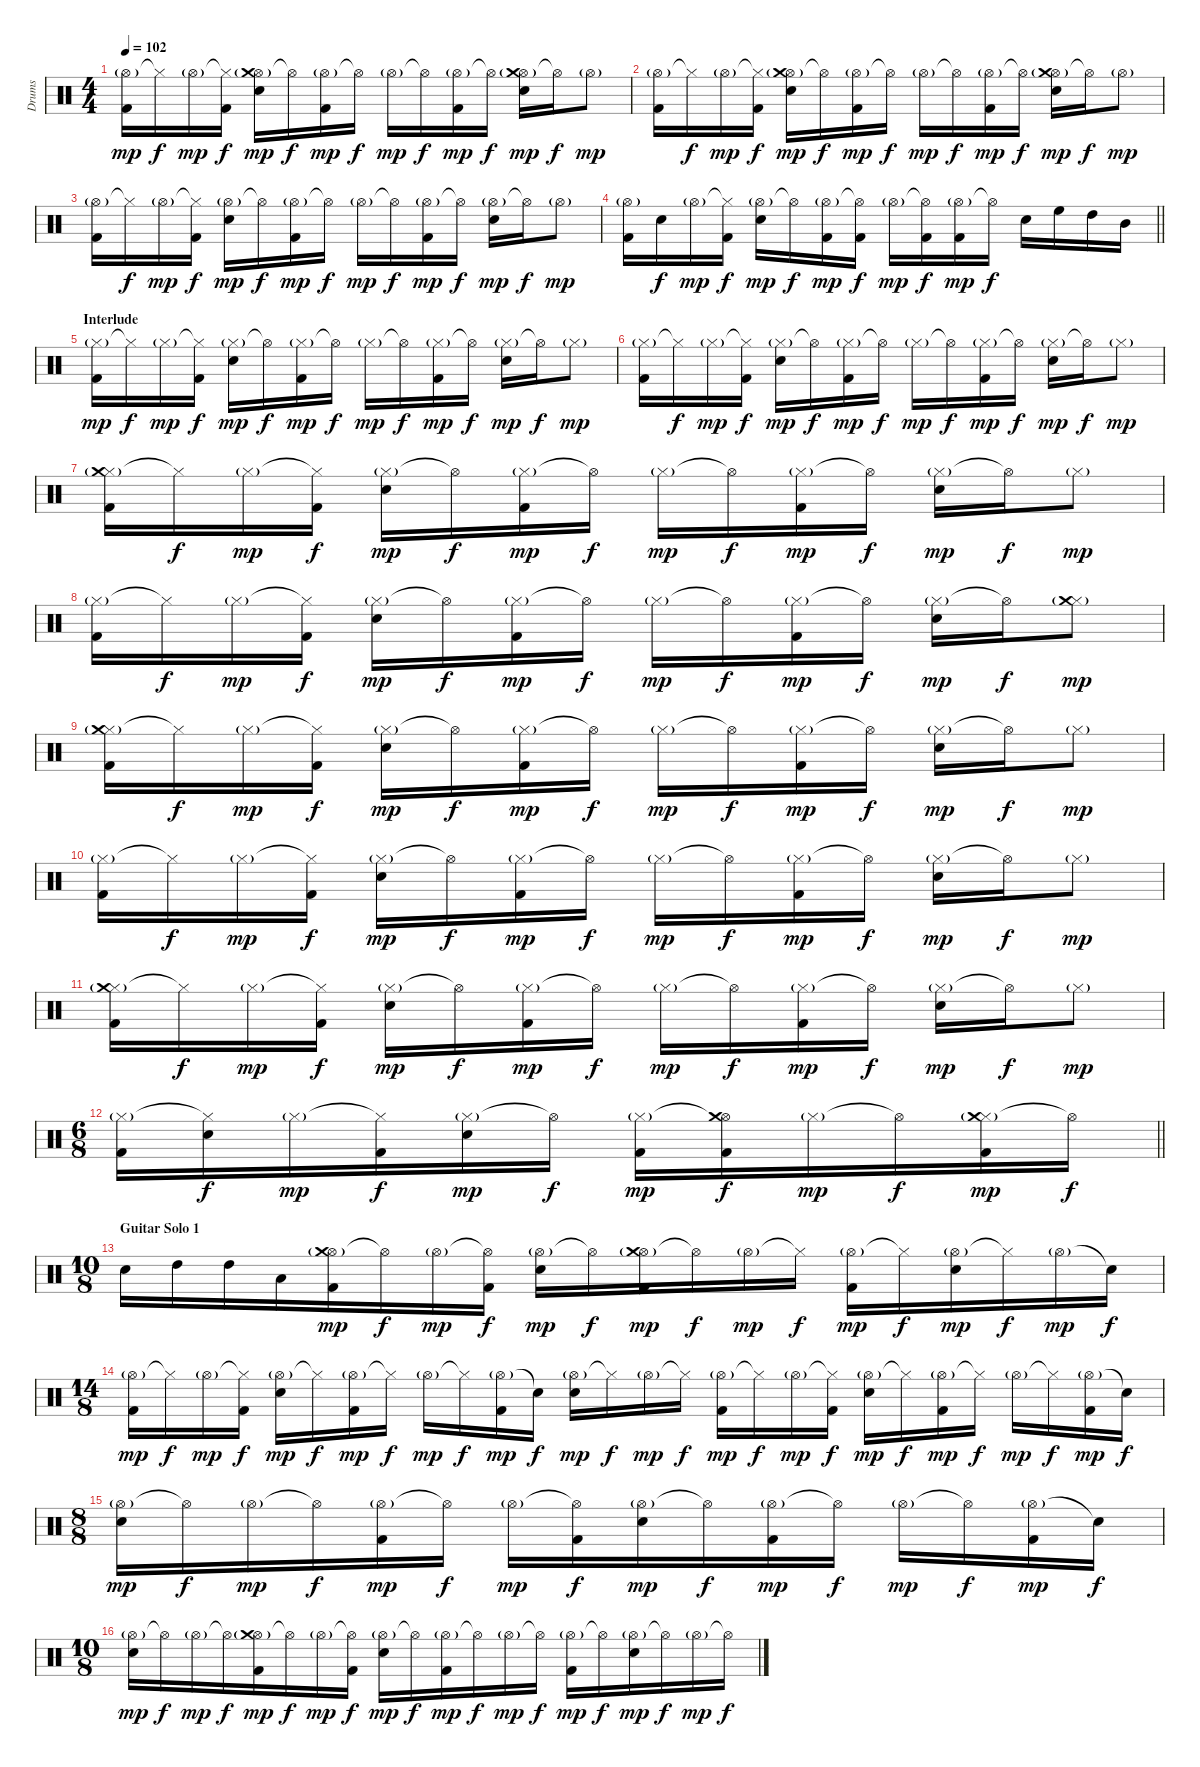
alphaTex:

\track ("Drums" "Drums") {instrument percussion}
\staff {score}
\articulation defaults
\ts (4 4)
\tempo 102
\clef neutral
\ks c
("Hi-Hat (open)"{g} "Kick (hit) 2").16{dy mp} "Hi-Hat (closed)"{t}.16{dy f} "Hi-Hat (open)"{g}.16{dy mp} ("Hi-Hat (closed)"{t} "Kick (hit) 2").16{dy f} ("Hi-Hat (open)"{g} "Crash medium (hit)"{g} "Electric Snare (hit)").16{dy mp} "Hi-Hat (open)"{t}.16{dy f} ("Hi-Hat (open)"{g} "Kick (hit) 2").16{dy mp} "Hi-Hat (open)"{t}.16{dy f} "Hi-Hat (open)"{g}.16{dy mp} "Hi-Hat (open)"{t}.16{dy f} ("Hi-Hat (open)"{g} "Kick (hit) 2").16{dy mp} "Hi-Hat (open)"{t}.16{dy f} ("Hi-Hat (open)"{g} "Crash medium (hit)"{g} "Electric Snare (hit)").16{dy mp} "Hi-Hat (open)"{t}.16{dy f} "Hi-Hat (open)"{g}.8{dy mp} |
("Hi-Hat (open)"{g} "Kick (hit) 2").16 "Hi-Hat (closed)"{t}.16{dy f} "Hi-Hat (open)"{g}.16{dy mp} ("Hi-Hat (closed)"{t} "Kick (hit) 2").16{dy f} ("Hi-Hat (open)"{g} "Crash medium (hit)"{g} "Electric Snare (hit)").16{dy mp} "Hi-Hat (open)"{t}.16{dy f} ("Hi-Hat (open)"{g} "Kick (hit) 2").16{dy mp} "Hi-Hat (open)"{t}.16{dy f} "Hi-Hat (open)"{g}.16{dy mp} "Hi-Hat (open)"{t}.16{dy f} ("Hi-Hat (open)"{g} "Kick (hit) 2").16{dy mp} "Hi-Hat (open)"{t}.16{dy f} ("Hi-Hat (open)"{g} "Crash medium (hit)"{g} "Electric Snare (hit)").16{dy mp} "Hi-Hat (open)"{t}.16{dy f} "Hi-Hat (open)"{g}.8{dy mp} |
("Hi-Hat (open)"{g} "Kick (hit) 2").16 "Hi-Hat (closed)"{t}.16{dy f} "Hi-Hat (open)"{g}.16{dy mp} ("Hi-Hat (closed)"{t} "Kick (hit) 2").16{dy f} ("Hi-Hat (open)"{g} "Electric Snare (hit)").16{dy mp} "Hi-Hat (open)"{t}.16{dy f} ("Hi-Hat (open)"{g} "Kick (hit) 2").16{dy mp} "Hi-Hat (open)"{t}.16{dy f} "Hi-Hat (open)"{g}.16{dy mp} "Hi-Hat (open)"{t}.16{dy f} ("Hi-Hat (open)"{g} "Kick (hit) 2").16{dy mp} "Hi-Hat (open)"{t}.16{dy f} ("Hi-Hat (open)"{g} "Electric Snare (hit)").16{dy mp} "Hi-Hat (open)"{t}.16{dy f} "Hi-Hat (open)"{g}.8{dy mp} |
\barLineRight lightlight
("Hi-Hat (open)"{g} "Kick (hit) 2").16 "Electric Snare (hit)".16{dy f} "Hi-Hat (open)"{g}.16{dy mp} ("Hi-Hat (closed)"{t} "Kick (hit) 2").16{dy f} ("Hi-Hat (open)"{g} "Electric Snare (hit)").16{dy mp} "Hi-Hat (open)"{t}.16{dy f} ("Hi-Hat (open)"{g} "Kick (hit) 2").16{dy mp} ("Hi-Hat (open)"{t} "Kick (hit) 2").16{dy f} "Hi-Hat (open)"{g}.16{dy mp} ("Hi-Hat (open)"{t} "Kick (hit) 2").16{dy f} ("Hi-Hat (open)"{g} "Kick (hit) 2").16{dy mp} "Hi-Hat (open)"{t}.16{dy f} "Electric Snare (hit)".16 "High Floor Tom (hit)".16 "High Tom (hit)".16 "Mid Tom (hit)".16 |
\section ("" "Interlude")
("Hi-Hat (closed)"{g} "Kick (hit) 2").16{dy mp} "Hi-Hat (closed)"{t}.16{dy f} "Hi-Hat (closed)"{g}.16{dy mp} ("Hi-Hat (closed)"{t} "Kick (hit) 2").16{dy f} ("Hi-Hat (closed)"{g} "Electric Snare (hit)").16{dy mp} "Hi-Hat (open)"{t}.16{dy f} ("Hi-Hat (closed)"{g} "Kick (hit) 2").16{dy mp} "Hi-Hat (open)"{t}.16{dy f} "Hi-Hat (closed)"{g}.16{dy mp} "Hi-Hat (open)"{t}.16{dy f} ("Hi-Hat (closed)"{g} "Kick (hit) 2").16{dy mp} "Hi-Hat (open)"{t}.16{dy f} ("Hi-Hat (closed)"{g} "Electric Snare (hit)").16{dy mp} "Hi-Hat (open)"{t}.16{dy f} "Hi-Hat (closed)"{g}.8{dy mp} |
("Hi-Hat (closed)"{g} "Kick (hit) 2").16 "Hi-Hat (closed)"{t}.16{dy f} "Hi-Hat (closed)"{g}.16{dy mp} ("Hi-Hat (closed)"{t} "Kick (hit) 2").16{dy f} ("Hi-Hat (closed)"{g} "Electric Snare (hit)").16{dy mp} "Hi-Hat (open)"{t}.16{dy f} ("Hi-Hat (closed)"{g} "Kick (hit) 2").16{dy mp} "Hi-Hat (open)"{t}.16{dy f} "Hi-Hat (closed)"{g}.16{dy mp} "Hi-Hat (open)"{t}.16{dy f} ("Hi-Hat (closed)"{g} "Kick (hit) 2").16{dy mp} "Hi-Hat (open)"{t}.16{dy f} ("Hi-Hat (closed)"{g} "Electric Snare (hit)").16{dy mp} "Hi-Hat (open)"{t}.16{dy f} "Hi-Hat (closed)"{g}.8{dy mp} |
("Hi-Hat (closed)"{g} "Crash medium (hit)" "Kick (hit) 2").16 "Hi-Hat (closed)"{t}.16{dy f} "Hi-Hat (closed)"{g}.16{dy mp} ("Hi-Hat (closed)"{t} "Kick (hit) 2").16{dy f} ("Hi-Hat (closed)"{g} "Electric Snare (hit)").16{dy mp} "Hi-Hat (open)"{t}.16{dy f} ("Hi-Hat (closed)"{g} "Kick (hit) 2").16{dy mp} "Hi-Hat (open)"{t}.16{dy f} "Hi-Hat (closed)"{g}.16{dy mp} "Hi-Hat (open)"{t}.16{dy f} ("Hi-Hat (closed)"{g} "Kick (hit) 2").16{dy mp} "Hi-Hat (open)"{t}.16{dy f} ("Hi-Hat (closed)"{g} "Electric Snare (hit)").16{dy mp} "Hi-Hat (open)"{t}.16{dy f} "Hi-Hat (closed)"{g}.8{dy mp} |
("Hi-Hat (closed)"{g} "Kick (hit) 2").16 "Hi-Hat (closed)"{t}.16{dy f} "Hi-Hat (closed)"{g}.16{dy mp} ("Hi-Hat (closed)"{t} "Kick (hit) 2").16{dy f} ("Hi-Hat (closed)"{g} "Electric Snare (hit)").16{dy mp} "Hi-Hat (open)"{t}.16{dy f} ("Hi-Hat (closed)"{g} "Kick (hit) 2").16{dy mp} "Hi-Hat (open)"{t}.16{dy f} "Hi-Hat (closed)"{g}.16{dy mp} "Hi-Hat (open)"{t}.16{dy f} ("Hi-Hat (closed)"{g} "Kick (hit) 2").16{dy mp} "Hi-Hat (open)"{t}.16{dy f} ("Hi-Hat (closed)"{g} "Electric Snare (hit)").16{dy mp} "Hi-Hat (open)"{t}.16{dy f} ("Hi-Hat (closed)"{g} "Crash medium (hit)").8{dy mp} |
("Hi-Hat (closed)"{g} "Crash medium (hit)" "Kick (hit) 2").16 "Hi-Hat (closed)"{t}.16{dy f} "Hi-Hat (closed)"{g}.16{dy mp} ("Hi-Hat (closed)"{t} "Kick (hit) 2").16{dy f} ("Hi-Hat (closed)"{g} "Electric Snare (hit)").16{dy mp} "Hi-Hat (open)"{t}.16{dy f} ("Hi-Hat (closed)"{g} "Kick (hit) 2").16{dy mp} "Hi-Hat (open)"{t}.16{dy f} "Hi-Hat (closed)"{g}.16{dy mp} "Hi-Hat (open)"{t}.16{dy f} ("Hi-Hat (closed)"{g} "Kick (hit) 2").16{dy mp} "Hi-Hat (open)"{t}.16{dy f} ("Hi-Hat (closed)"{g} "Electric Snare (hit)").16{dy mp} "Hi-Hat (open)"{t}.16{dy f} "Hi-Hat (closed)"{g}.8{dy mp} |
("Hi-Hat (closed)"{g} "Kick (hit) 2").16 "Hi-Hat (closed)"{t}.16{dy f} "Hi-Hat (closed)"{g}.16{dy mp} ("Hi-Hat (closed)"{t} "Kick (hit) 2").16{dy f} ("Hi-Hat (closed)"{g} "Electric Snare (hit)").16{dy mp} "Hi-Hat (open)"{t}.16{dy f} ("Hi-Hat (closed)"{g} "Kick (hit) 2").16{dy mp} "Hi-Hat (open)"{t}.16{dy f} "Hi-Hat (closed)"{g}.16{dy mp} "Hi-Hat (open)"{t}.16{dy f} ("Hi-Hat (closed)"{g} "Kick (hit) 2").16{dy mp} "Hi-Hat (open)"{t}.16{dy f} ("Hi-Hat (closed)"{g} "Electric Snare (hit)").16{dy mp} "Hi-Hat (open)"{t}.16{dy f} "Hi-Hat (closed)"{g}.8{dy mp} |
("Hi-Hat (closed)"{g} "Crash medium (hit)" "Kick (hit) 2").16 "Hi-Hat (closed)"{t}.16{dy f} "Hi-Hat (closed)"{g}.16{dy mp} ("Hi-Hat (closed)"{t} "Kick (hit) 2").16{dy f} ("Hi-Hat (closed)"{g} "Electric Snare (hit)").16{dy mp} "Hi-Hat (open)"{t}.16{dy f} ("Hi-Hat (closed)"{g} "Kick (hit) 2").16{dy mp} "Hi-Hat (open)"{t}.16{dy f} "Hi-Hat (closed)"{g}.16{dy mp} "Hi-Hat (open)"{t}.16{dy f} ("Hi-Hat (closed)"{g} "Kick (hit) 2").16{dy mp} "Hi-Hat (open)"{t}.16{dy f} ("Hi-Hat (closed)"{g} "Electric Snare (hit)").16{dy mp} "Hi-Hat (open)"{t}.16{dy f} "Hi-Hat (closed)"{g}.8{dy mp} |
\ts (6 8)
\barLineRight lightlight
("Hi-Hat (closed)"{g} "Kick (hit) 2").16 ("Hi-Hat (closed)"{t} "Electric Snare (hit)").16{dy f} "Hi-Hat (closed)"{g}.16{dy mp} ("Hi-Hat (closed)"{t} "Kick (hit) 2").16{dy f} ("Hi-Hat (closed)"{g} "Electric Snare (hit)").16{dy mp} "Hi-Hat (open)"{t}.16{dy f} ("Hi-Hat (closed)"{g} "Kick (hit) 2").16{dy mp} ("Hi-Hat (open)"{t} "Crash medium (hit)" "Kick (hit) 2").16{dy f} "Hi-Hat (closed)"{g}.16{dy mp} "Hi-Hat (open)"{t}.16{dy f} ("Hi-Hat (closed)"{g} "Crash medium (hit)" "Kick (hit) 2").16{dy mp} "Hi-Hat (open)"{t}.16{dy f} |
\ts (10 8)
\section ("" "Guitar Solo 1")
"Electric Snare (hit)".16 "High Tom (hit)".16 "High Tom (hit)".16 "Low Tom (hit)".16 ("Hi-Hat (open)"{g} "Crash medium (hit)" "Kick (hit) 2").16{dy mp} "Hi-Hat (open)"{t}.16{dy f} "Hi-Hat (open)"{g}.16{dy mp} ("Hi-Hat (open)"{t} "Kick (hit) 2").16{dy f} ("Hi-Hat (open)"{g} "Electric Snare (hit)").16{dy mp} "Hi-Hat (open)"{t}.16{dy f} ("Hi-Hat (open)"{g} "Crash medium (hit)" "Kick (hit) 2").16{dy mp} "Hi-Hat (open)"{t}.16{dy f} "Hi-Hat (open)"{g}.16{dy mp} "Hi-Hat (closed)"{t}.16{dy f} ("Hi-Hat (open)"{g} "Kick (hit) 2").16{dy mp} "Hi-Hat (closed)"{t}.16{dy f} ("Hi-Hat (open)"{g} "Electric Snare (hit)").16{dy mp} "Hi-Hat (closed)"{t}.16{dy f} "Hi-Hat (open)"{g}.16{dy mp} "Snare (hit)"{t}.16{dy f} |
\ts (14 8)
("Hi-Hat (open)"{g} "Kick (hit) 2").16{dy mp} "Hi-Hat (closed)"{t}.16{dy f} "Hi-Hat (open)"{g}.16{dy mp} ("Hi-Hat (closed)"{t} "Kick (hit) 2").16{dy f} ("Hi-Hat (open)"{g} "Electric Snare (hit)").16{dy mp} "Hi-Hat (closed)"{t}.16{dy f} ("Hi-Hat (open)"{g} "Kick (hit) 2").16{dy mp} "Hi-Hat (closed)"{t}.16{dy f} "Hi-Hat (open)"{g}.16{dy mp} "Hi-Hat (closed)"{t}.16{dy f} ("Hi-Hat (open)"{g} "Kick (hit) 2").16{dy mp} "Snare (hit)"{t}.16{dy f} ("Hi-Hat (open)"{g} "Electric Snare (hit)").16{dy mp} "Hi-Hat (closed)"{t}.16{dy f} "Hi-Hat (open)"{g}.16{dy mp} "Hi-Hat (closed)"{t}.16{dy f} ("Hi-Hat (open)"{g} "Kick (hit) 2").16{dy mp} "Hi-Hat (closed)"{t}.16{dy f} "Hi-Hat (open)"{g}.16{dy mp} ("Hi-Hat (closed)"{t} "Kick (hit) 2").16{dy f} ("Hi-Hat (open)"{g} "Electric Snare (hit)").16{dy mp} "Hi-Hat (closed)"{t}.16{dy f} ("Hi-Hat (open)"{g} "Kick (hit) 2").16{dy mp} "Hi-Hat (closed)"{t}.16{dy f} "Hi-Hat (open)"{g}.16{dy mp} "Hi-Hat (closed)"{t}.16{dy f} ("Hi-Hat (open)"{g} "Kick (hit) 2").16{dy mp} "Snare (hit)"{t}.16{dy f} |
\ts (8 8)
("Hi-Hat (open)"{g} "Electric Snare (hit)").16{dy mp} "Hi-Hat (open)"{t}.16{dy f} "Hi-Hat (open)"{g}.16{dy mp} "Hi-Hat (open)"{t}.16{dy f} ("Hi-Hat (open)"{g} "Kick (hit) 2").16{dy mp} "Hi-Hat (open)"{t}.16{dy f} "Hi-Hat (open)"{g}.16{dy mp} ("Hi-Hat (open)"{t} "Kick (hit) 2").16{dy f} ("Hi-Hat (open)"{g} "Electric Snare (hit)").16{dy mp} "Hi-Hat (open)"{t}.16{dy f} ("Hi-Hat (open)"{g} "Kick (hit) 2").16{dy mp} "Hi-Hat (open)"{t}.16{dy f} "Hi-Hat (open)"{g}.16{dy mp} "Hi-Hat (open)"{t}.16{dy f} ("Hi-Hat (open)"{g} "Kick (hit) 2").16{dy mp} "Snare (hit)"{t}.16{dy f} |
\ts (10 8)
("Hi-Hat (open)"{g} "Electric Snare (hit)").16{dy mp} "Hi-Hat (open)"{t}.16{dy f} "Hi-Hat (open)"{g}.16{dy mp} "Hi-Hat (open)"{t}.16{dy f} ("Hi-Hat (open)"{g} "Crash medium (hit)" "Kick (hit) 2").16{dy mp} "Hi-Hat (open)"{t}.16{dy f} "Hi-Hat (open)"{g}.16{dy mp} ("Hi-Hat (open)"{t} "Kick (hit) 2").16{dy f} ("Hi-Hat (open)"{g} "Electric Snare (hit)").16{dy mp} "Hi-Hat (open)"{t}.16{dy f} ("Hi-Hat (open)"{g} "Kick (hit) 2").16{dy mp} "Hi-Hat (open)"{t}.16{dy f} "Hi-Hat (open)"{g}.16{dy mp} "Hi-Hat (open)"{t}.16{dy f} ("Hi-Hat (open)"{g} "Kick (hit) 2").16{dy mp} "Hi-Hat (open)"{t}.16{dy f} ("Hi-Hat (open)"{g} "Electric Snare (hit)").16{dy mp} "Hi-Hat (open)"{t}.16{dy f} "Hi-Hat (open)"{g}.16{dy mp} "Hi-Hat (open)"{t}.16{dy f}
